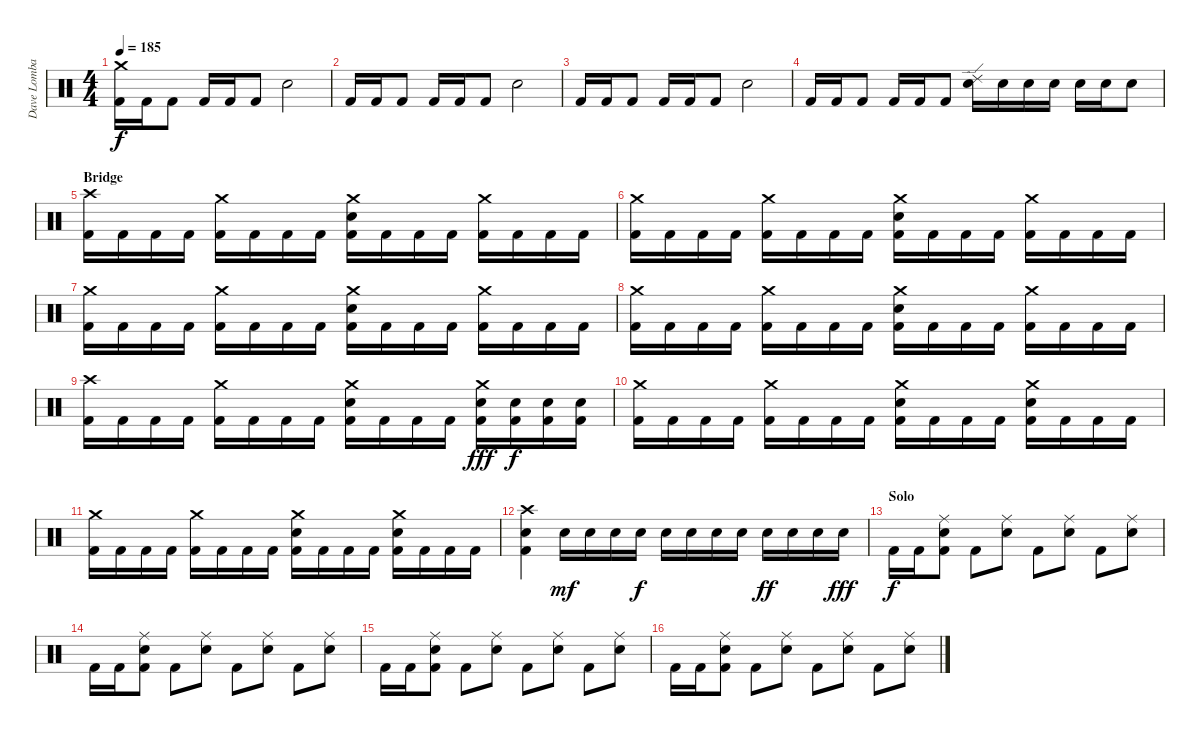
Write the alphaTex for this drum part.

\track ("Dave Lombardo - Drums" "Dave Lomba") {instrument percussion}
\staff {score}
\articulation defaults
\ts (4 4)
\tempo 185
\clef neutral
\ks c
("Crash medium (hit)" "Kick (hit) 2").16{dy f} "Kick (hit) 2".16 "Kick (hit) 2".8 "Kick (hit) 2".16 "Kick (hit) 2".16 "Kick (hit) 2".8 "Electric Snare (hit)".2 |
"Kick (hit) 2".16 "Kick (hit) 2".16 "Kick (hit) 2".8 "Kick (hit) 2".16 "Kick (hit) 2".16 "Kick (hit) 2".8 "Electric Snare (hit)".2 |
"Kick (hit) 2".16 "Kick (hit) 2".16 "Kick (hit) 2".8 "Kick (hit) 2".16 "Kick (hit) 2".16 "Kick (hit) 2".8 "Electric Snare (hit)".2 |
"Kick (hit) 2".16 "Kick (hit) 2".16 "Kick (hit) 2".8 "Kick (hit) 2".16 "Kick (hit) 2".16 "Kick (hit) 2".8 ("Ride (edge) 2" "Electric Snare (hit)").16 "Electric Snare (hit)".16 "Electric Snare (hit)".16 "Electric Snare (hit)".16 "Electric Snare (hit)".16 "Electric Snare (hit)".16 "Electric Snare (hit)".8 |
\section ("" "Bridge")
("Crash high (hit)" "Kick (hit) 2").16 "Kick (hit) 2".16 "Kick (hit) 2".16 "Kick (hit) 2".16 ("Crash medium (hit)" "Kick (hit) 2").16 "Kick (hit) 2".16 "Kick (hit) 2".16 "Kick (hit) 2".16 ("Crash medium (hit)" "Electric Snare (hit)" "Kick (hit) 2").16 "Kick (hit) 2".16 "Kick (hit) 2".16 "Kick (hit) 2".16 ("Crash medium (hit)" "Kick (hit) 2").16 "Kick (hit) 2".16 "Kick (hit) 2".16 "Kick (hit) 2".16 |
("Crash medium (hit)" "Kick (hit) 2").16 "Kick (hit) 2".16 "Kick (hit) 2".16 "Kick (hit) 2".16 ("Crash medium (hit)" "Kick (hit) 2").16 "Kick (hit) 2".16 "Kick (hit) 2".16 "Kick (hit) 2".16 ("Crash medium (hit)" "Electric Snare (hit)" "Kick (hit) 2").16 "Kick (hit) 2".16 "Kick (hit) 2".16 "Kick (hit) 2".16 ("Crash medium (hit)" "Kick (hit) 2").16 "Kick (hit) 2".16 "Kick (hit) 2".16 "Kick (hit) 2".16 |
("Crash medium (hit)" "Kick (hit) 2").16 "Kick (hit) 2".16 "Kick (hit) 2".16 "Kick (hit) 2".16 ("Crash medium (hit)" "Kick (hit) 2").16 "Kick (hit) 2".16 "Kick (hit) 2".16 "Kick (hit) 2".16 ("Crash medium (hit)" "Electric Snare (hit)" "Kick (hit) 2").16 "Kick (hit) 2".16 "Kick (hit) 2".16 "Kick (hit) 2".16 ("Crash medium (hit)" "Kick (hit) 2").16 "Kick (hit) 2".16 "Kick (hit) 2".16 "Kick (hit) 2".16 |
("Crash medium (hit)" "Kick (hit) 2").16 "Kick (hit) 2".16 "Kick (hit) 2".16 "Kick (hit) 2".16 ("Crash medium (hit)" "Kick (hit) 2").16 "Kick (hit) 2".16 "Kick (hit) 2".16 "Kick (hit) 2".16 ("Crash medium (hit)" "Electric Snare (hit)" "Kick (hit) 2").16 "Kick (hit) 2".16 "Kick (hit) 2".16 "Kick (hit) 2".16 ("Crash medium (hit)" "Kick (hit) 2").16 "Kick (hit) 2".16 "Kick (hit) 2".16 "Kick (hit) 2".16 |
("Crash high (hit)" "Kick (hit) 2").16 "Kick (hit) 2".16 "Kick (hit) 2".16 "Kick (hit) 2".16 ("Crash medium (hit)" "Kick (hit) 2").16 "Kick (hit) 2".16 "Kick (hit) 2".16 "Kick (hit) 2".16 ("Crash medium (hit)" "Electric Snare (hit)" "Kick (hit) 2").16 "Kick (hit) 2".16 "Kick (hit) 2".16 "Kick (hit) 2".16 ("Crash medium (hit)" "Electric Snare (hit)" "Kick (hit) 2").16{dy fff} ("Electric Snare (hit)" "Kick (hit) 2").16{dy f} ("Electric Snare (hit)" "Kick (hit) 2").16 ("Electric Snare (hit)" "Kick (hit) 2").16 |
("Crash medium (hit)" "Kick (hit) 2").16 "Kick (hit) 2".16 "Kick (hit) 2".16 "Kick (hit) 2".16 ("Crash medium (hit)" "Kick (hit) 2").16 "Kick (hit) 2".16 "Kick (hit) 2".16 "Kick (hit) 2".16 ("Crash medium (hit)" "Electric Snare (hit)" "Kick (hit) 2").16 "Kick (hit) 2".16 "Kick (hit) 2".16 "Kick (hit) 2".16 ("Crash medium (hit)" "Electric Snare (hit)" "Kick (hit) 2").16 "Kick (hit) 2".16 "Kick (hit) 2".16 "Kick (hit) 2".16 |
("Crash medium (hit)" "Kick (hit) 2").16 "Kick (hit) 2".16 "Kick (hit) 2".16 "Kick (hit) 2".16 ("Crash medium (hit)" "Kick (hit) 2").16 "Kick (hit) 2".16 "Kick (hit) 2".16 "Kick (hit) 2".16 ("Crash medium (hit)" "Electric Snare (hit)" "Kick (hit) 2").16 "Kick (hit) 2".16 "Kick (hit) 2".16 "Kick (hit) 2".16 ("Crash medium (hit)" "Electric Snare (hit)" "Kick (hit) 2").16 "Kick (hit) 2".16 "Kick (hit) 2".16 "Kick (hit) 2".16 |
("Crash high (hit)" "Electric Snare (hit)" "Kick (hit) 2").4 "Electric Snare (hit)".16{dy mf} "Electric Snare (hit)".16 "Electric Snare (hit)".16 "Electric Snare (hit)".16{dy f} "Electric Snare (hit)".16 "Electric Snare (hit)".16 "Electric Snare (hit)".16 "Electric Snare (hit)".16 "Electric Snare (hit)".16{dy ff} "Electric Snare (hit)".16 "Electric Snare (hit)".16 "Electric Snare (hit)".16{dy fff} |
\section ("" "Solo")
"Kick (hit) 2".16{dy f} "Kick (hit) 2".16 ("Ride (middle)" "Electric Snare (hit)" "Kick (hit) 2").8 "Kick (hit) 2".8 ("Ride (middle)" "Electric Snare (hit)").8 "Kick (hit) 2".8 ("Ride (middle)" "Electric Snare (hit)").8 "Kick (hit) 2".8 ("Ride (middle)" "Electric Snare (hit)").8 |
"Kick (hit) 2".16 "Kick (hit) 2".16 ("Ride (middle)" "Electric Snare (hit)" "Kick (hit) 2").8 "Kick (hit) 2".8 ("Ride (middle)" "Electric Snare (hit)").8 "Kick (hit) 2".8 ("Ride (middle)" "Electric Snare (hit)").8 "Kick (hit) 2".8 ("Ride (middle)" "Electric Snare (hit)").8 |
"Kick (hit) 2".16 "Kick (hit) 2".16 ("Ride (middle)" "Electric Snare (hit)" "Kick (hit) 2").8 "Kick (hit) 2".8 ("Ride (middle)" "Electric Snare (hit)").8 "Kick (hit) 2".8 ("Ride (middle)" "Electric Snare (hit)").8 "Kick (hit) 2".8 ("Ride (middle)" "Electric Snare (hit)").8 |
"Kick (hit) 2".16 "Kick (hit) 2".16 ("Ride (middle)" "Electric Snare (hit)" "Kick (hit) 2").8 "Kick (hit) 2".8 ("Ride (middle)" "Electric Snare (hit)").8 "Kick (hit) 2".8 ("Ride (middle)" "Electric Snare (hit)").8 "Kick (hit) 2".8 ("Ride (middle)" "Electric Snare (hit)").8
